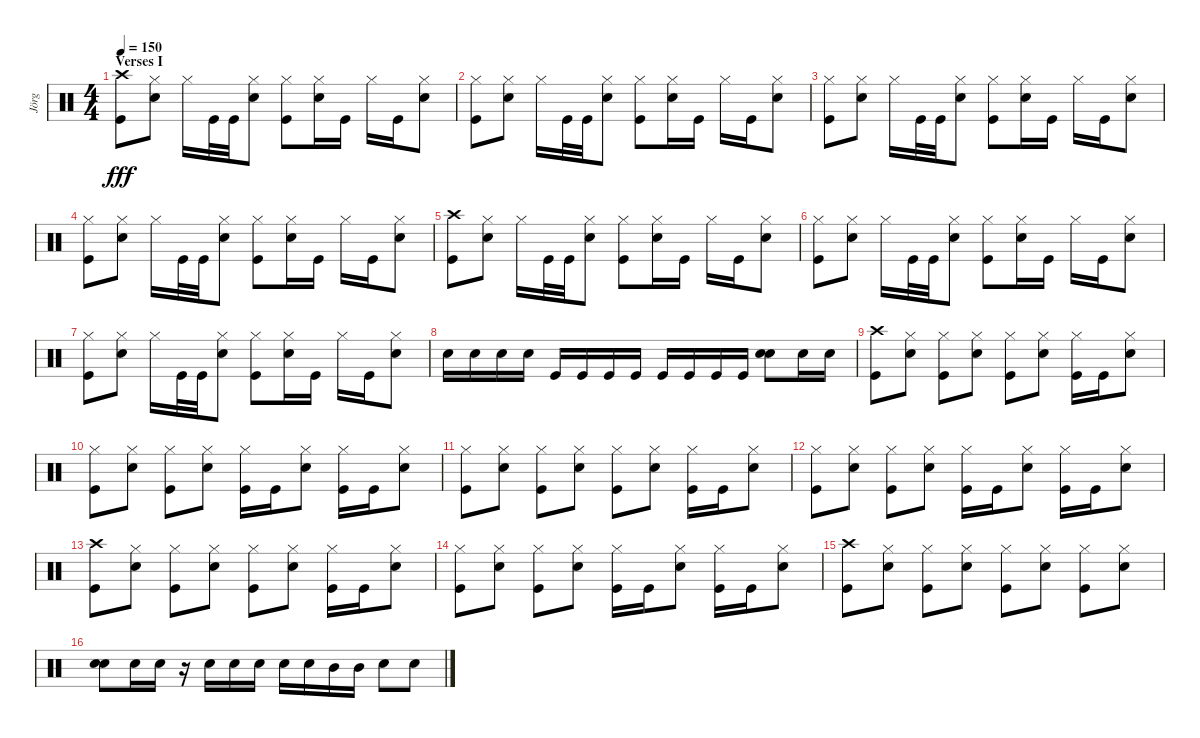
\track ("Jörg" "Jörg") {instrument percussion}
\staff {score}
\articulation defaults
\ts (4 4)
\section ("" "Verses I")
\tempo 150
\clef neutral
\ks c
("Crash high (hit)" "Kick (hit)").8{dy fff} ("Snare (hit) 2" "Hi-Hat (closed)").8 "Hi-Hat (closed)".16 "Kick (hit)".32 "Kick (hit)".32 ("Snare (hit) 2" "Hi-Hat (closed)").8 ("Kick (hit)" "Hi-Hat (closed)").8 ("Snare (hit) 2" "Hi-Hat (closed)").16 "Kick (hit)".16 "Hi-Hat (closed)".16 "Kick (hit)".16 ("Snare (hit) 2" "Hi-Hat (closed)").8 |
("Hi-Hat (closed)" "Kick (hit)").8 ("Snare (hit) 2" "Hi-Hat (closed)").8 "Hi-Hat (closed)".16 "Kick (hit)".32 "Kick (hit)".32 ("Snare (hit) 2" "Hi-Hat (closed)").8 ("Kick (hit)" "Hi-Hat (closed)").8 ("Snare (hit) 2" "Hi-Hat (closed)").16 "Kick (hit)".16 "Hi-Hat (closed)".16 "Kick (hit)".16 ("Snare (hit) 2" "Hi-Hat (closed)").8 |
("Hi-Hat (closed)" "Kick (hit)").8 ("Snare (hit) 2" "Hi-Hat (closed)").8 "Hi-Hat (closed)".16 "Kick (hit)".32 "Kick (hit)".32 ("Snare (hit) 2" "Hi-Hat (closed)").8 ("Kick (hit)" "Hi-Hat (closed)").8 ("Snare (hit) 2" "Hi-Hat (closed)").16 "Kick (hit)".16 "Hi-Hat (closed)".16 "Kick (hit)".16 ("Snare (hit) 2" "Hi-Hat (closed)").8 |
("Hi-Hat (closed)" "Kick (hit)").8 ("Snare (hit) 2" "Hi-Hat (closed)").8 "Hi-Hat (closed)".16 "Kick (hit)".32 "Kick (hit)".32 ("Snare (hit) 2" "Hi-Hat (closed)").8 ("Kick (hit)" "Hi-Hat (closed)").8 ("Snare (hit) 2" "Hi-Hat (closed)").16 "Kick (hit)".16 "Hi-Hat (closed)".16 "Kick (hit)".16 ("Snare (hit) 2" "Hi-Hat (closed)").8 |
("Crash high (hit)" "Kick (hit)").8 ("Snare (hit) 2" "Hi-Hat (closed)").8 "Hi-Hat (closed)".16 "Kick (hit)".32 "Kick (hit)".32 ("Snare (hit) 2" "Hi-Hat (closed)").8 ("Kick (hit)" "Hi-Hat (closed)").8 ("Snare (hit) 2" "Hi-Hat (closed)").16 "Kick (hit)".16 "Hi-Hat (closed)".16 "Kick (hit)".16 ("Snare (hit) 2" "Hi-Hat (closed)").8 |
("Hi-Hat (closed)" "Kick (hit)").8 ("Snare (hit) 2" "Hi-Hat (closed)").8 "Hi-Hat (closed)".16 "Kick (hit)".32 "Kick (hit)".32 ("Snare (hit) 2" "Hi-Hat (closed)").8 ("Kick (hit)" "Hi-Hat (closed)").8 ("Snare (hit) 2" "Hi-Hat (closed)").16 "Kick (hit)".16 "Hi-Hat (closed)".16 "Kick (hit)".16 ("Snare (hit) 2" "Hi-Hat (closed)").8 |
("Hi-Hat (closed)" "Kick (hit)").8 ("Snare (hit) 2" "Hi-Hat (closed)").8 "Hi-Hat (closed)".16 "Kick (hit)".32 "Kick (hit)".32 ("Snare (hit) 2" "Hi-Hat (closed)").8 ("Kick (hit)" "Hi-Hat (closed)").8 ("Snare (hit) 2" "Hi-Hat (closed)").16 "Kick (hit)".16 "Hi-Hat (closed)".16 "Kick (hit)".16 ("Snare (hit) 2" "Hi-Hat (closed)").8 |
"Snare (hit) 2".16 "Snare (hit) 2".16 "Snare (hit) 2".16 "Snare (hit) 2".16 "Kick (hit)".16 "Kick (hit)".16 "Kick (hit)".16 "Kick (hit)".16 "Kick (hit)".16 "Kick (hit)".16 "Kick (hit)".16 "Kick (hit)".16 ("Snare (hit) 2" "Snare (hit) 2").8 "Snare (hit) 2".16 "Snare (hit) 2".16 |
("Crash high (hit)" "Kick (hit)").8 ("Snare (hit) 2" "Hi-Hat (closed)").8 ("Kick (hit)" "Hi-Hat (closed)").8 ("Snare (hit) 2" "Hi-Hat (closed)").8 ("Kick (hit)" "Hi-Hat (closed)").8 ("Snare (hit) 2" "Hi-Hat (closed)").8 ("Kick (hit)" "Hi-Hat (closed)").16 "Kick (hit)".16 ("Snare (hit) 2" "Hi-Hat (closed)").8 |
("Kick (hit)" "Hi-Hat (closed)").8 ("Snare (hit) 2" "Hi-Hat (closed)").8 ("Kick (hit)" "Hi-Hat (closed)").8 ("Snare (hit) 2" "Hi-Hat (closed)").8 ("Kick (hit)" "Hi-Hat (closed)").16 "Kick (hit)".16 ("Snare (hit) 2" "Hi-Hat (closed)").8 ("Kick (hit)" "Hi-Hat (closed)").16 "Kick (hit)".16 ("Snare (hit) 2" "Hi-Hat (closed)").8 |
("Hi-Hat (closed)" "Kick (hit)").8 ("Snare (hit) 2" "Hi-Hat (closed)").8 ("Kick (hit)" "Hi-Hat (closed)").8 ("Snare (hit) 2" "Hi-Hat (closed)").8 ("Kick (hit)" "Hi-Hat (closed)").8 ("Snare (hit) 2" "Hi-Hat (closed)").8 ("Kick (hit)" "Hi-Hat (closed)").16 "Kick (hit)".16 ("Snare (hit) 2" "Hi-Hat (closed)").8 |
("Kick (hit)" "Hi-Hat (closed)").8 ("Snare (hit) 2" "Hi-Hat (closed)").8 ("Kick (hit)" "Hi-Hat (closed)").8 ("Snare (hit) 2" "Hi-Hat (closed)").8 ("Kick (hit)" "Hi-Hat (closed)").16 "Kick (hit)".16 ("Snare (hit) 2" "Hi-Hat (closed)").8 ("Kick (hit)" "Hi-Hat (closed)").16 "Kick (hit)".16 ("Snare (hit) 2" "Hi-Hat (closed)").8 |
("Crash high (hit)" "Kick (hit)").8 ("Snare (hit) 2" "Hi-Hat (closed)").8 ("Kick (hit)" "Hi-Hat (closed)").8 ("Snare (hit) 2" "Hi-Hat (closed)").8 ("Kick (hit)" "Hi-Hat (closed)").8 ("Snare (hit) 2" "Hi-Hat (closed)").8 ("Kick (hit)" "Hi-Hat (closed)").16 "Kick (hit)".16 ("Snare (hit) 2" "Hi-Hat (closed)").8 |
("Kick (hit)" "Hi-Hat (closed)").8 ("Snare (hit) 2" "Hi-Hat (closed)").8 ("Kick (hit)" "Hi-Hat (closed)").8 ("Snare (hit) 2" "Hi-Hat (closed)").8 ("Kick (hit)" "Hi-Hat (closed)").16 "Kick (hit)".16 ("Snare (hit) 2" "Hi-Hat (closed)").8 ("Kick (hit)" "Hi-Hat (closed)").16 "Kick (hit)".16 ("Snare (hit) 2" "Hi-Hat (closed)").8 |
("Crash high (hit)" "Kick (hit)").8 ("Snare (hit) 2" "Hi-Hat (closed)").8 ("Kick (hit)" "Hi-Hat (closed)").8 ("Snare (hit) 2" "Hi-Hat (closed)").8 ("Kick (hit)" "Hi-Hat (closed)").8 ("Snare (hit) 2" "Hi-Hat (closed)").8 ("Kick (hit)" "Hi-Hat (closed)").8 ("Snare (hit) 2" "Hi-Hat (closed)").8 |
("Snare (hit) 2" "Snare (hit) 2").8 "Snare (hit) 2".16 "Snare (hit) 2".16 r.16 "Snare (hit) 2".16 "Snare (hit) 2".16 "Snare (hit) 2".16 "Snare (hit) 2".16 "Snare (hit) 2".16 "Mid Tom (hit)".16 "Mid Tom (hit)".16 "Snare (hit) 2".8 "Snare (hit) 2".8
